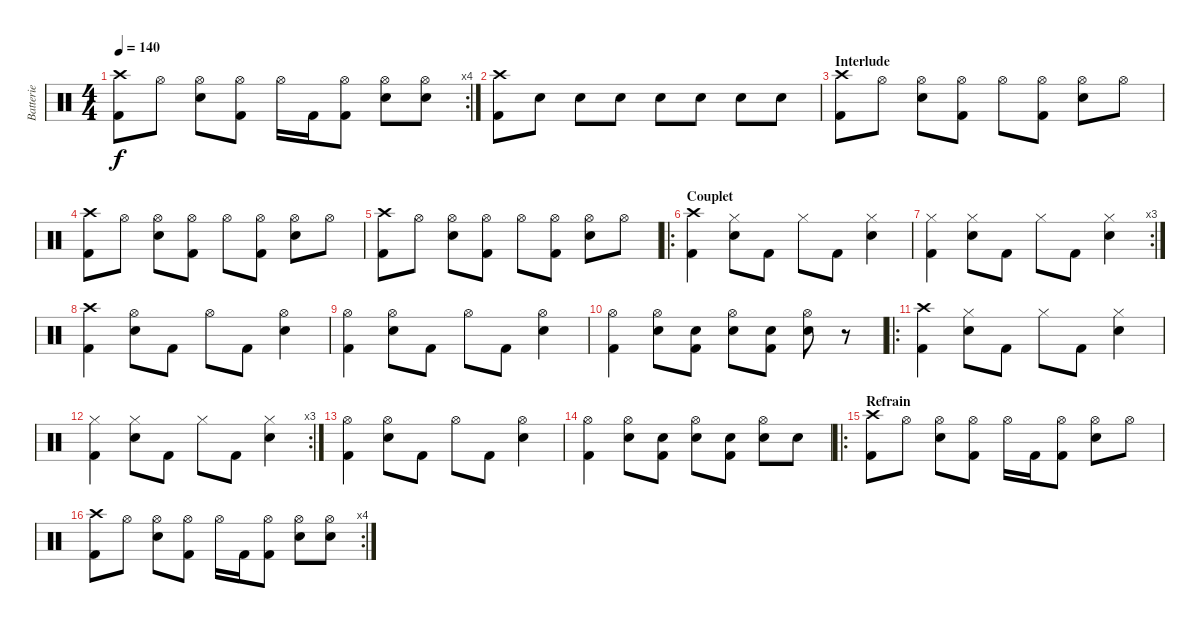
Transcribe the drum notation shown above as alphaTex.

\track ("Batterie" "Batterie") {instrument percussion}
\staff {score}
\articulation defaults
\rc 4
\ts (4 4)
\tempo 140
\clef neutral
\ks c
("Crash high (hit)" "Kick (hit) 2").8{dy f} "Hi-Hat (open)".8 ("Electric Snare (hit)" "Hi-Hat (open)").8 ("Hi-Hat (open)" "Kick (hit) 2").8 "Hi-Hat (open)".16 "Kick (hit) 2".16 ("Hi-Hat (open)" "Kick (hit) 2").8 ("Electric Snare (hit)" "Hi-Hat (open)").8 ("Electric Snare (hit)" "Hi-Hat (open)").8 |
("Crash high (hit)" "Kick (hit) 2").8 "Electric Snare (hit)".8 "Electric Snare (hit)".8 "Electric Snare (hit)".8 "Electric Snare (hit)".8 "Electric Snare (hit)".8 "Electric Snare (hit)".8 "Electric Snare (hit)".8 |
\section ("" "Interlude")
("Crash high (hit)" "Kick (hit) 2").8 "Hi-Hat (open)".8 ("Electric Snare (hit)" "Hi-Hat (open)").8 ("Hi-Hat (open)" "Kick (hit) 2").8 "Hi-Hat (open)".8 ("Hi-Hat (open)" "Kick (hit) 2").8 ("Electric Snare (hit)" "Hi-Hat (open)").8 "Hi-Hat (open)".8 |
("Crash high (hit)" "Kick (hit) 2").8 "Hi-Hat (open)".8 ("Electric Snare (hit)" "Hi-Hat (open)").8 ("Hi-Hat (open)" "Kick (hit) 2").8 "Hi-Hat (open)".8 ("Hi-Hat (open)" "Kick (hit) 2").8 ("Electric Snare (hit)" "Hi-Hat (open)").8 "Hi-Hat (open)".8 |
("Crash high (hit)" "Kick (hit) 2").8 "Hi-Hat (open)".8 ("Electric Snare (hit)" "Hi-Hat (open)").8 ("Hi-Hat (open)" "Kick (hit) 2").8 "Hi-Hat (open)".8 ("Hi-Hat (open)" "Kick (hit) 2").8 ("Electric Snare (hit)" "Hi-Hat (open)").8 "Hi-Hat (open)".8 |
\ro
\section ("" "Couplet")
("Crash high (hit)" "Kick (hit) 2").4 ("Electric Snare (hit)" "Hi-Hat (closed)").8 "Kick (hit) 2".8 "Hi-Hat (closed)".8 "Kick (hit) 2".8 ("Electric Snare (hit)" "Hi-Hat (closed)").4 |
\rc 3
("Hi-Hat (closed)" "Kick (hit) 2").4 ("Electric Snare (hit)" "Hi-Hat (closed)").8 "Kick (hit) 2".8 "Hi-Hat (closed)".8 "Kick (hit) 2".8 ("Electric Snare (hit)" "Hi-Hat (closed)").4 |
("Crash high (hit)" "Kick (hit) 2").4 ("Electric Snare (hit)" "Hi-Hat (open)").8 "Kick (hit) 2".8 "Hi-Hat (open)".8 "Kick (hit) 2".8 ("Electric Snare (hit)" "Hi-Hat (open)").4 |
("Hi-Hat (open)" "Kick (hit) 2").4 ("Electric Snare (hit)" "Hi-Hat (open)").8 "Kick (hit) 2".8 "Hi-Hat (open)".8 "Kick (hit) 2".8 ("Electric Snare (hit)" "Hi-Hat (open)").4 |
("Hi-Hat (open)" "Kick (hit) 2").4 ("Electric Snare (hit)" "Hi-Hat (open)").8 ("Electric Snare (hit)" "Kick (hit) 2").8 ("Electric Snare (hit)" "Hi-Hat (open)").8 ("Electric Snare (hit)" "Kick (hit) 2").8 ("Electric Snare (hit)" "Hi-Hat (open)").8 r.8 |
\ro
("Crash high (hit)" "Kick (hit) 2").4 ("Electric Snare (hit)" "Hi-Hat (closed)").8 "Kick (hit) 2".8 "Hi-Hat (closed)".8 "Kick (hit) 2".8 ("Electric Snare (hit)" "Hi-Hat (closed)").4 |
\rc 3
("Hi-Hat (closed)" "Kick (hit) 2").4 ("Electric Snare (hit)" "Hi-Hat (closed)").8 "Kick (hit) 2".8 "Hi-Hat (closed)".8 "Kick (hit) 2".8 ("Electric Snare (hit)" "Hi-Hat (closed)").4 |
("Hi-Hat (open)" "Kick (hit) 2").4 ("Electric Snare (hit)" "Hi-Hat (open)").8 "Kick (hit) 2".8 "Hi-Hat (open)".8 "Kick (hit) 2".8 ("Electric Snare (hit)" "Hi-Hat (open)").4 |
("Hi-Hat (open)" "Kick (hit) 2").4 ("Electric Snare (hit)" "Hi-Hat (open)").8 ("Electric Snare (hit)" "Kick (hit) 2").8 ("Electric Snare (hit)" "Hi-Hat (open)").8 ("Electric Snare (hit)" "Kick (hit) 2").8 ("Electric Snare (hit)" "Hi-Hat (open)").8 "Electric Snare (hit)".8 |
\ro
\section ("" "Refrain")
("Crash high (hit)" "Kick (hit) 2").8 "Hi-Hat (open)".8 ("Electric Snare (hit)" "Hi-Hat (open)").8 ("Hi-Hat (open)" "Kick (hit) 2").8 "Hi-Hat (open)".16 "Kick (hit) 2".16 ("Hi-Hat (open)" "Kick (hit) 2").8 ("Electric Snare (hit)" "Hi-Hat (open)").8 "Hi-Hat (open)".8 |
\rc 4
("Crash high (hit)" "Kick (hit) 2").8 "Hi-Hat (open)".8 ("Electric Snare (hit)" "Hi-Hat (open)").8 ("Hi-Hat (open)" "Kick (hit) 2").8 "Hi-Hat (open)".16 "Kick (hit) 2".16 ("Hi-Hat (open)" "Kick (hit) 2").8 ("Electric Snare (hit)" "Hi-Hat (open)").8 ("Electric Snare (hit)" "Hi-Hat (open)").8
